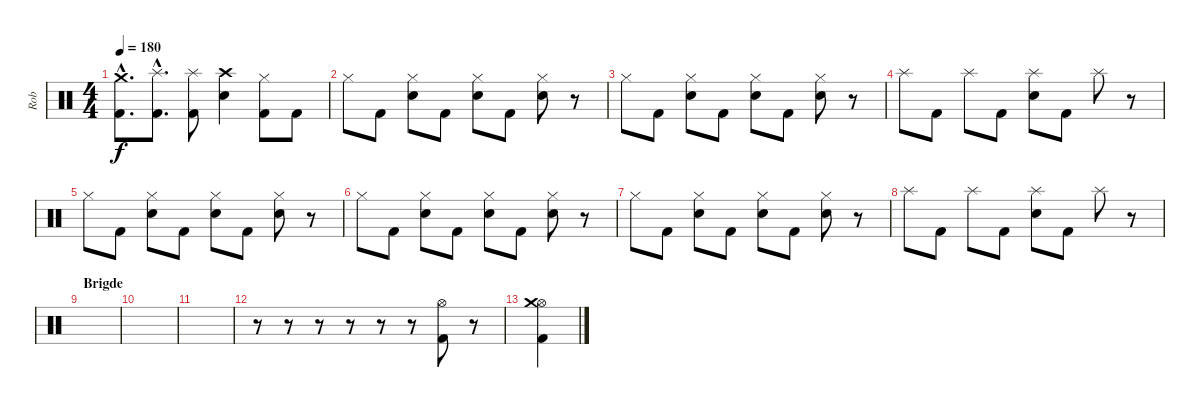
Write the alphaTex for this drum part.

\track ("Rob" "Rob") {instrument percussion}
\staff {score}
\articulation defaults
\ts (4 4)
\tempo 180
\clef neutral
\ks c
("Crash medium (hit)"{hac} "Kick (hit) 2"{hac}).8{d dy f} ("Splash (hit)"{hac} "Kick (hit) 2"{hac}).8{d} ("Splash (hit)" "Kick (hit) 2").8 ("Crash high (hit)" "Electric Snare (hit)").4 ("Hi-Hat (closed)" "Kick (hit) 2").8 "Kick (hit) 2".8 |
"Hi-Hat (closed)".8 "Kick (hit) 2".8 ("Hi-Hat (closed)" "Electric Snare (hit)").8 "Kick (hit) 2".8 ("Hi-Hat (closed)" "Electric Snare (hit)").8 "Kick (hit) 2".8 ("Hi-Hat (closed)" "Electric Snare (hit)").8 r.8 |
"Hi-Hat (closed)".8 "Kick (hit) 2".8 ("Hi-Hat (closed)" "Electric Snare (hit)").8 "Kick (hit) 2".8 ("Hi-Hat (closed)" "Electric Snare (hit)").8 "Kick (hit) 2".8 ("Hi-Hat (closed)" "Electric Snare (hit)").8 r.8 |
"Splash (hit)".8 "Kick (hit) 2".8 "Splash (hit)".8 "Kick (hit) 2".8 ("Splash (hit)" "Electric Snare (hit)").8 "Kick (hit) 2".8 "Splash (hit)".8 r.8 |
"Hi-Hat (closed)".8 "Kick (hit) 2".8 ("Hi-Hat (closed)" "Electric Snare (hit)").8 "Kick (hit) 2".8 ("Hi-Hat (closed)" "Electric Snare (hit)").8 "Kick (hit) 2".8 ("Hi-Hat (closed)" "Electric Snare (hit)").8 r.8 |
"Hi-Hat (closed)".8 "Kick (hit) 2".8 ("Hi-Hat (closed)" "Electric Snare (hit)").8 "Kick (hit) 2".8 ("Hi-Hat (closed)" "Electric Snare (hit)").8 "Kick (hit) 2".8 ("Hi-Hat (closed)" "Electric Snare (hit)").8 r.8 |
"Hi-Hat (closed)".8 "Kick (hit) 2".8 ("Hi-Hat (closed)" "Electric Snare (hit)").8 "Kick (hit) 2".8 ("Hi-Hat (closed)" "Electric Snare (hit)").8 "Kick (hit) 2".8 ("Hi-Hat (closed)" "Electric Snare (hit)").8 r.8 |
"Splash (hit)".8 "Kick (hit) 2".8 "Splash (hit)".8 "Kick (hit) 2".8 ("Splash (hit)" "Electric Snare (hit)").8 "Kick (hit) 2".8 "Splash (hit)".8 r.8 |
\section ("" "Brigde")
|
|
|
r.8 r.8 r.8 r.8 r.8 r.8 ("Hi-Hat (open)" "Kick (hit) 2").8 r.8 |
("Hi-Hat (open)" "Kick (hit) 2" "Crash medium (hit)").4
